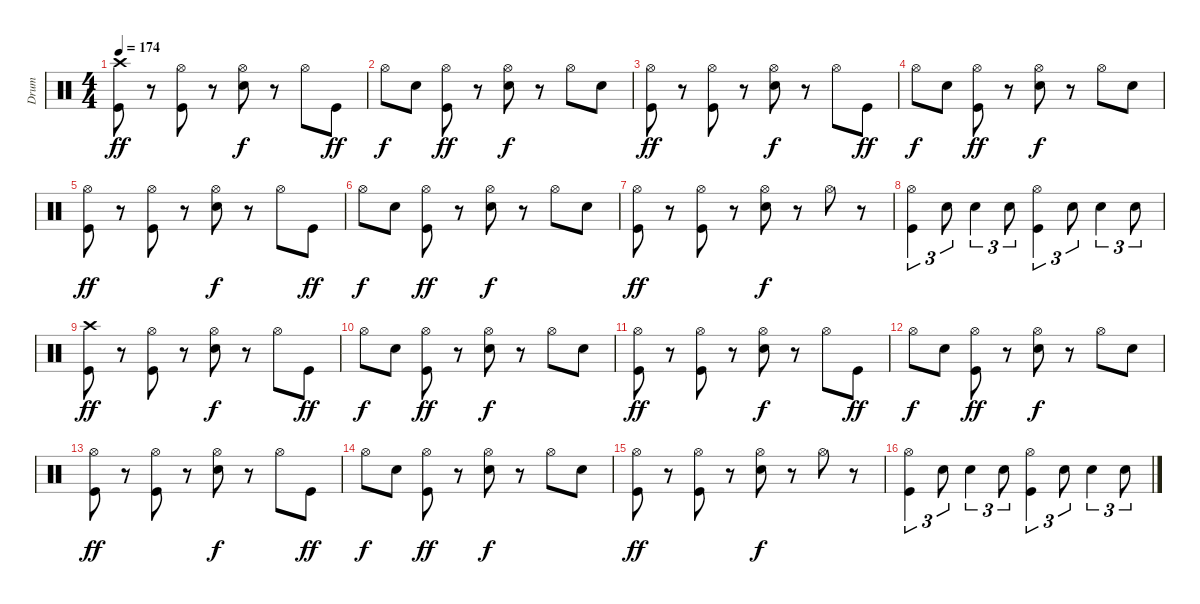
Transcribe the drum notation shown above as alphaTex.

\track ("Drum" "Drum") {instrument percussion}
\staff {score}
\articulation defaults
\ts (4 4)
\tempo 174
\clef neutral
\ks c
("Crash high (hit)" "Kick (hit)").8{dy ff} r.8 ("Hi-Hat (open)" "Kick (hit)").8 r.8 ("Hi-Hat (open)" "Snare (hit) 2").8{dy f} r.8 "Hi-Hat (open)".8 "Kick (hit)".8{dy ff} |
"Hi-Hat (open)".8{dy f} "Snare (hit) 2".8 ("Hi-Hat (open)" "Kick (hit)").8{dy ff} r.8 ("Hi-Hat (open)" "Snare (hit) 2").8{dy f} r.8 "Hi-Hat (open)".8 "Snare (hit) 2".8 |
("Hi-Hat (open)" "Kick (hit)").8{dy ff} r.8 ("Hi-Hat (open)" "Kick (hit)").8 r.8 ("Hi-Hat (open)" "Snare (hit) 2").8{dy f} r.8 "Hi-Hat (open)".8 "Kick (hit)".8{dy ff} |
"Hi-Hat (open)".8{dy f} "Snare (hit) 2".8 ("Hi-Hat (open)" "Kick (hit)").8{dy ff} r.8 ("Hi-Hat (open)" "Snare (hit) 2").8{dy f} r.8 "Hi-Hat (open)".8 "Snare (hit) 2".8 |
("Hi-Hat (open)" "Kick (hit)").8{dy ff} r.8 ("Hi-Hat (open)" "Kick (hit)").8 r.8 ("Hi-Hat (open)" "Snare (hit) 2").8{dy f} r.8 "Hi-Hat (open)".8 "Kick (hit)".8{dy ff} |
"Hi-Hat (open)".8{dy f} "Snare (hit) 2".8 ("Hi-Hat (open)" "Kick (hit)").8{dy ff} r.8 ("Hi-Hat (open)" "Snare (hit) 2").8{dy f} r.8 "Hi-Hat (open)".8 "Snare (hit) 2".8 |
("Hi-Hat (open)" "Kick (hit)").8{dy ff} r.8 ("Hi-Hat (open)" "Kick (hit)").8 r.8 ("Hi-Hat (open)" "Snare (hit) 2").8{dy f} r.8 "Hi-Hat (open)".8 r.8 |
("Hi-Hat (open)" "Kick (hit)").4{tu (3 2)} "Snare (hit) 2".8{tu (3 2)} "Snare (hit) 2".4{tu (3 2)} "Snare (hit) 2".8{tu (3 2)} ("Hi-Hat (open)" "Kick (hit)").4{tu (3 2)} "Snare (hit) 2".8{tu (3 2)} "Snare (hit) 2".4{tu (3 2)} "Snare (hit) 2".8{tu (3 2)} |
("Crash high (hit)" "Kick (hit)").8{dy ff} r.8 ("Hi-Hat (open)" "Kick (hit)").8 r.8 ("Hi-Hat (open)" "Snare (hit) 2").8{dy f} r.8 "Hi-Hat (open)".8 "Kick (hit)".8{dy ff} |
"Hi-Hat (open)".8{dy f} "Snare (hit) 2".8 ("Hi-Hat (open)" "Kick (hit)").8{dy ff} r.8 ("Hi-Hat (open)" "Snare (hit) 2").8{dy f} r.8 "Hi-Hat (open)".8 "Snare (hit) 2".8 |
("Hi-Hat (open)" "Kick (hit)").8{dy ff} r.8 ("Hi-Hat (open)" "Kick (hit)").8 r.8 ("Hi-Hat (open)" "Snare (hit) 2").8{dy f} r.8 "Hi-Hat (open)".8 "Kick (hit)".8{dy ff} |
"Hi-Hat (open)".8{dy f} "Snare (hit) 2".8 ("Hi-Hat (open)" "Kick (hit)").8{dy ff} r.8 ("Hi-Hat (open)" "Snare (hit) 2").8{dy f} r.8 "Hi-Hat (open)".8 "Snare (hit) 2".8 |
("Hi-Hat (open)" "Kick (hit)").8{dy ff} r.8 ("Hi-Hat (open)" "Kick (hit)").8 r.8 ("Hi-Hat (open)" "Snare (hit) 2").8{dy f} r.8 "Hi-Hat (open)".8 "Kick (hit)".8{dy ff} |
"Hi-Hat (open)".8{dy f} "Snare (hit) 2".8 ("Hi-Hat (open)" "Kick (hit)").8{dy ff} r.8 ("Hi-Hat (open)" "Snare (hit) 2").8{dy f} r.8 "Hi-Hat (open)".8 "Snare (hit) 2".8 |
("Hi-Hat (open)" "Kick (hit)").8{dy ff} r.8 ("Hi-Hat (open)" "Kick (hit)").8 r.8 ("Hi-Hat (open)" "Snare (hit) 2").8{dy f} r.8 "Hi-Hat (open)".8 r.8 |
("Hi-Hat (open)" "Kick (hit)").4{tu (3 2)} "Snare (hit) 2".8{tu (3 2)} "Snare (hit) 2".4{tu (3 2)} "Snare (hit) 2".8{tu (3 2)} ("Hi-Hat (open)" "Kick (hit)").4{tu (3 2)} "Snare (hit) 2".8{tu (3 2)} "Snare (hit) 2".4{tu (3 2)} "Snare (hit) 2".8{tu (3 2)}
